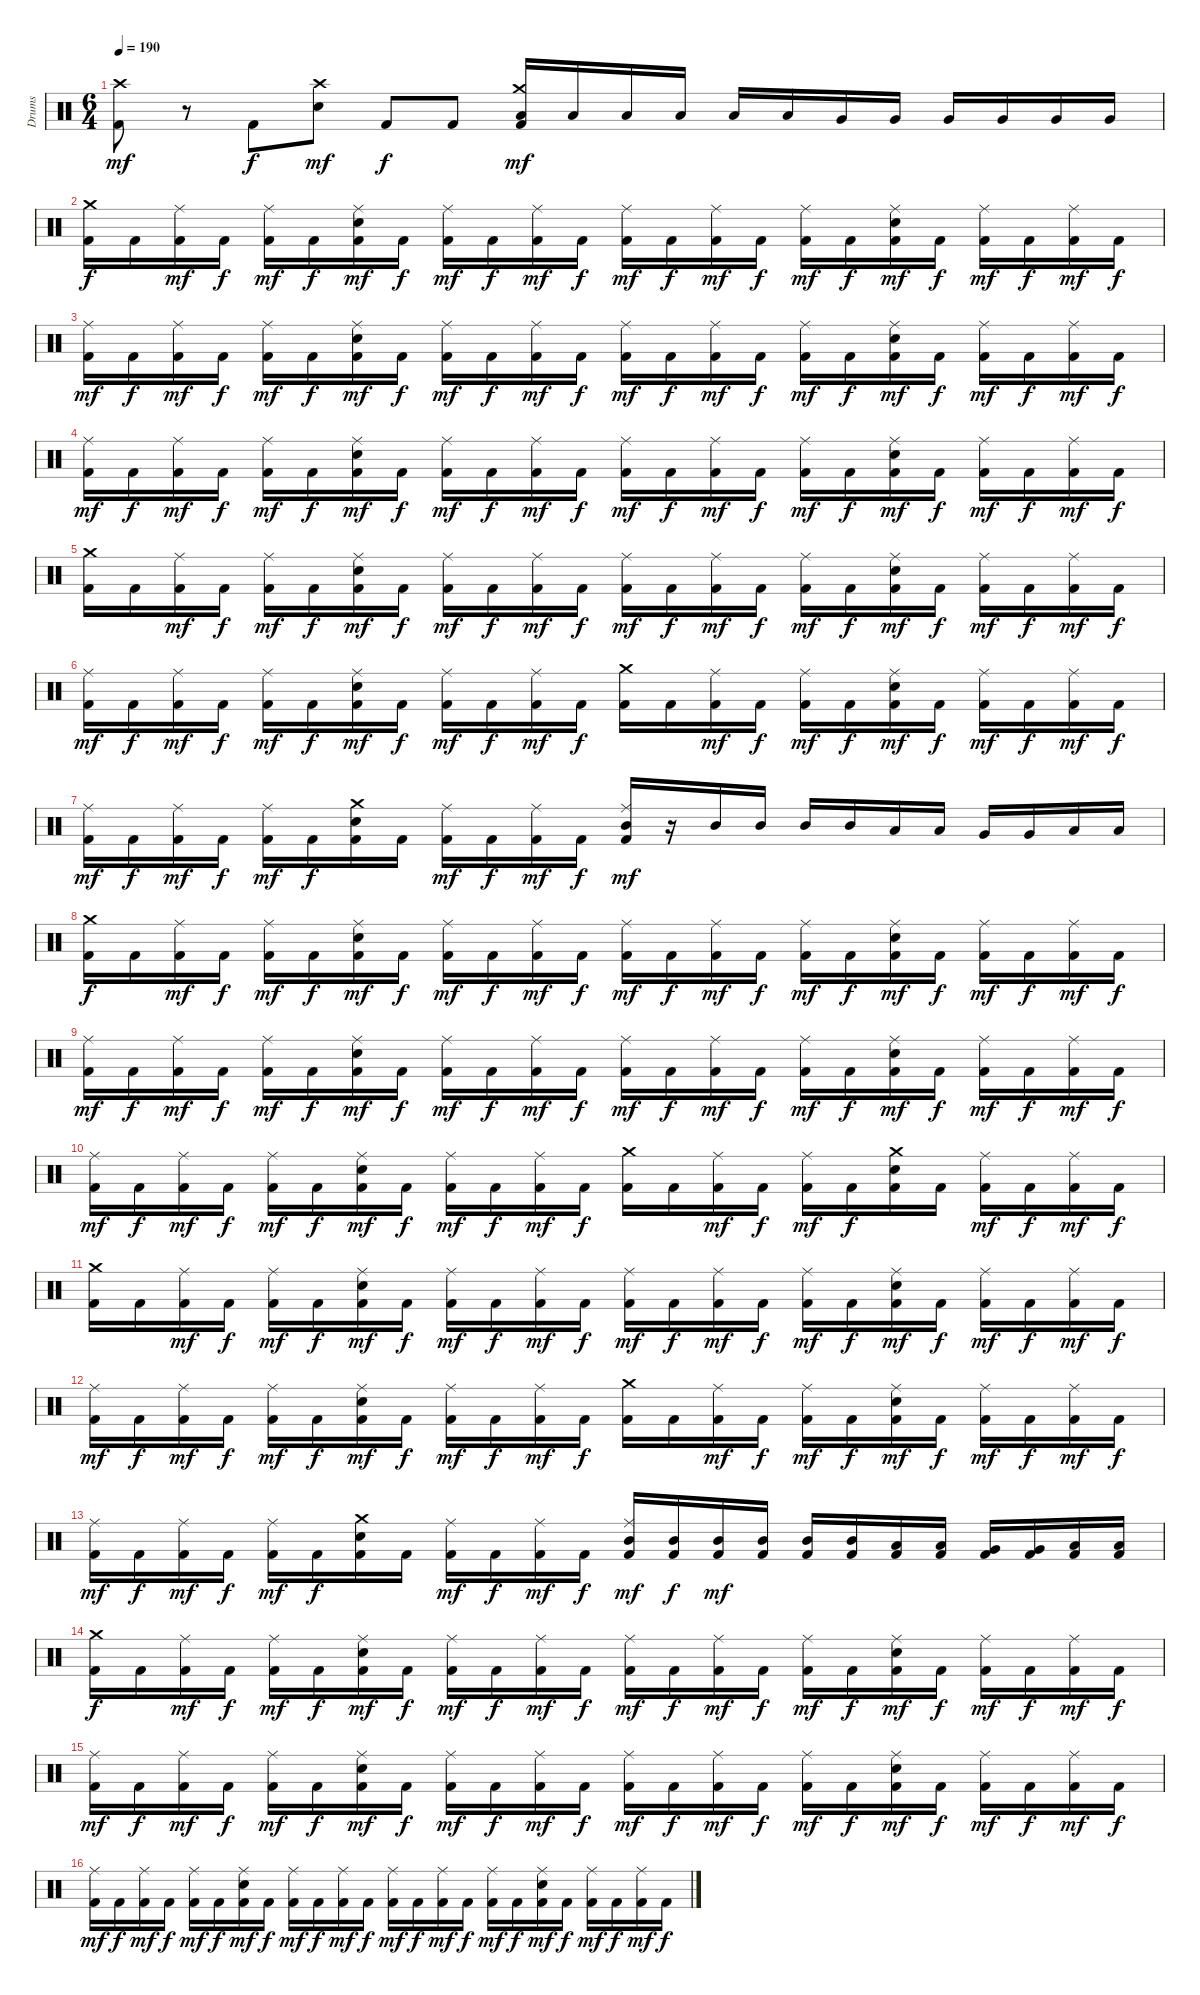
\track ("Drums" "Drums") {instrument percussion}
\staff {score}
\articulation defaults
\ts (6 4)
\tempo 190
\clef neutral
\ks c
("Crash high (hit)" "Kick (hit) 2").8{dy mf} r.8 "Kick (hit) 2".8{dy f} ("Crash high (hit)" "Snare (hit) 2").8{dy mf} "Kick (hit) 2".8{dy f} "Kick (hit) 2".8 ("Crash medium (hit)" "Low Tom (hit)" "Kick (hit) 2").16{dy mf} "Low Tom (hit)".16 "Low Tom (hit)".16 "Low Tom (hit)".16 "Low Tom (hit)".16 "Low Tom (hit)".16 "Very Low Tom (hit)".16 "Very Low Tom (hit)".16 "Very Low Tom (hit)".16 "Very Low Tom (hit)".16 "Very Low Tom (hit)".16 "Very Low Tom (hit)".16 |
("Crash medium (hit)" "Kick (hit) 2").16{dy f} "Kick (hit) 2".16 ("Ride (middle)" "Kick (hit) 2").16{dy mf} "Kick (hit) 2".16{dy f} ("Ride (middle)" "Kick (hit) 2").16{dy mf} "Kick (hit) 2".16{dy f} ("Ride (middle)" "Snare (hit) 2" "Kick (hit) 2").16{dy mf} "Kick (hit) 2".16{dy f} ("Ride (middle)" "Kick (hit) 2").16{dy mf} "Kick (hit) 2".16{dy f} ("Ride (middle)" "Kick (hit) 2").16{dy mf} "Kick (hit) 2".16{dy f} ("Ride (middle)" "Kick (hit) 2").16{dy mf} "Kick (hit) 2".16{dy f} ("Ride (middle)" "Kick (hit) 2").16{dy mf} "Kick (hit) 2".16{dy f} ("Ride (middle)" "Kick (hit) 2").16{dy mf} "Kick (hit) 2".16{dy f} ("Ride (middle)" "Snare (hit) 2" "Kick (hit) 2").16{dy mf} "Kick (hit) 2".16{dy f} ("Ride (middle)" "Kick (hit) 2").16{dy mf} "Kick (hit) 2".16{dy f} ("Ride (middle)" "Kick (hit) 2").16{dy mf} "Kick (hit) 2".16{dy f} |
("Ride (middle)" "Kick (hit) 2").16{dy mf} "Kick (hit) 2".16{dy f} ("Ride (middle)" "Kick (hit) 2").16{dy mf} "Kick (hit) 2".16{dy f} ("Ride (middle)" "Kick (hit) 2").16{dy mf} "Kick (hit) 2".16{dy f} ("Ride (middle)" "Snare (hit) 2" "Kick (hit) 2").16{dy mf} "Kick (hit) 2".16{dy f} ("Ride (middle)" "Kick (hit) 2").16{dy mf} "Kick (hit) 2".16{dy f} ("Ride (middle)" "Kick (hit) 2").16{dy mf} "Kick (hit) 2".16{dy f} ("Ride (middle)" "Kick (hit) 2").16{dy mf} "Kick (hit) 2".16{dy f} ("Ride (middle)" "Kick (hit) 2").16{dy mf} "Kick (hit) 2".16{dy f} ("Ride (middle)" "Kick (hit) 2").16{dy mf} "Kick (hit) 2".16{dy f} ("Ride (middle)" "Snare (hit) 2" "Kick (hit) 2").16{dy mf} "Kick (hit) 2".16{dy f} ("Ride (middle)" "Kick (hit) 2").16{dy mf} "Kick (hit) 2".16{dy f} ("Ride (middle)" "Kick (hit) 2").16{dy mf} "Kick (hit) 2".16{dy f} |
("Ride (middle)" "Kick (hit) 2").16{dy mf} "Kick (hit) 2".16{dy f} ("Ride (middle)" "Kick (hit) 2").16{dy mf} "Kick (hit) 2".16{dy f} ("Ride (middle)" "Kick (hit) 2").16{dy mf} "Kick (hit) 2".16{dy f} ("Ride (middle)" "Snare (hit) 2" "Kick (hit) 2").16{dy mf} "Kick (hit) 2".16{dy f} ("Ride (middle)" "Kick (hit) 2").16{dy mf} "Kick (hit) 2".16{dy f} ("Ride (middle)" "Kick (hit) 2").16{dy mf} "Kick (hit) 2".16{dy f} ("Ride (middle)" "Kick (hit) 2").16{dy mf} "Kick (hit) 2".16{dy f} ("Ride (middle)" "Kick (hit) 2").16{dy mf} "Kick (hit) 2".16{dy f} ("Ride (middle)" "Kick (hit) 2").16{dy mf} "Kick (hit) 2".16{dy f} ("Ride (middle)" "Snare (hit) 2" "Kick (hit) 2").16{dy mf} "Kick (hit) 2".16{dy f} ("Ride (middle)" "Kick (hit) 2").16{dy mf} "Kick (hit) 2".16{dy f} ("Ride (middle)" "Kick (hit) 2").16{dy mf} "Kick (hit) 2".16{dy f} |
("Crash medium (hit)" "Kick (hit) 2").16 "Kick (hit) 2".16 ("Ride (middle)" "Kick (hit) 2").16{dy mf} "Kick (hit) 2".16{dy f} ("Ride (middle)" "Kick (hit) 2").16{dy mf} "Kick (hit) 2".16{dy f} ("Ride (middle)" "Snare (hit) 2" "Kick (hit) 2").16{dy mf} "Kick (hit) 2".16{dy f} ("Ride (middle)" "Kick (hit) 2").16{dy mf} "Kick (hit) 2".16{dy f} ("Ride (middle)" "Kick (hit) 2").16{dy mf} "Kick (hit) 2".16{dy f} ("Ride (middle)" "Kick (hit) 2").16{dy mf} "Kick (hit) 2".16{dy f} ("Ride (middle)" "Kick (hit) 2").16{dy mf} "Kick (hit) 2".16{dy f} ("Ride (middle)" "Kick (hit) 2").16{dy mf} "Kick (hit) 2".16{dy f} ("Ride (middle)" "Snare (hit) 2" "Kick (hit) 2").16{dy mf} "Kick (hit) 2".16{dy f} ("Ride (middle)" "Kick (hit) 2").16{dy mf} "Kick (hit) 2".16{dy f} ("Ride (middle)" "Kick (hit) 2").16{dy mf} "Kick (hit) 2".16{dy f} |
("Ride (middle)" "Kick (hit) 2").16{dy mf} "Kick (hit) 2".16{dy f} ("Ride (middle)" "Kick (hit) 2").16{dy mf} "Kick (hit) 2".16{dy f} ("Ride (middle)" "Kick (hit) 2").16{dy mf} "Kick (hit) 2".16{dy f} ("Ride (middle)" "Snare (hit) 2" "Kick (hit) 2").16{dy mf} "Kick (hit) 2".16{dy f} ("Ride (middle)" "Kick (hit) 2").16{dy mf} "Kick (hit) 2".16{dy f} ("Ride (middle)" "Kick (hit) 2").16{dy mf} "Kick (hit) 2".16{dy f} ("Crash medium (hit)" "Kick (hit) 2").16 "Kick (hit) 2".16 ("Ride (middle)" "Kick (hit) 2").16{dy mf} "Kick (hit) 2".16{dy f} ("Ride (middle)" "Kick (hit) 2").16{dy mf} "Kick (hit) 2".16{dy f} ("Ride (middle)" "Snare (hit) 2" "Kick (hit) 2").16{dy mf} "Kick (hit) 2".16{dy f} ("Ride (middle)" "Kick (hit) 2").16{dy mf} "Kick (hit) 2".16{dy f} ("Ride (middle)" "Kick (hit) 2").16{dy mf} "Kick (hit) 2".16{dy f} |
("Ride (middle)" "Kick (hit) 2").16{dy mf} "Kick (hit) 2".16{dy f} ("Ride (middle)" "Kick (hit) 2").16{dy mf} "Kick (hit) 2".16{dy f} ("Ride (middle)" "Kick (hit) 2").16{dy mf} "Kick (hit) 2".16{dy f} ("Crash medium (hit)" "Snare (hit) 2" "Kick (hit) 2").16 "Kick (hit) 2".16 ("Ride (middle)" "Kick (hit) 2").16{dy mf} "Kick (hit) 2".16{dy f} ("Ride (middle)" "Kick (hit) 2").16{dy mf} "Kick (hit) 2".16{dy f} ("Ride (middle)" "Mid Tom (hit)" "Kick (hit) 2").16{dy mf} r.16 "Mid Tom (hit)".16 "Mid Tom (hit)".16 "Mid Tom (hit)".16 "Mid Tom (hit)".16 "Low Tom (hit)".16 "Low Tom (hit)".16 "Very Low Tom (hit)".16 "Very Low Tom (hit)".16 "Low Floor Tom (hit)".16 "Low Floor Tom (hit)".16 |
("Crash medium (hit)" "Kick (hit) 2").16{dy f} "Kick (hit) 2".16 ("Ride (middle)" "Kick (hit) 2").16{dy mf} "Kick (hit) 2".16{dy f} ("Ride (middle)" "Kick (hit) 2").16{dy mf} "Kick (hit) 2".16{dy f} ("Ride (middle)" "Snare (hit) 2" "Kick (hit) 2").16{dy mf} "Kick (hit) 2".16{dy f} ("Ride (middle)" "Kick (hit) 2").16{dy mf} "Kick (hit) 2".16{dy f} ("Ride (middle)" "Kick (hit) 2").16{dy mf} "Kick (hit) 2".16{dy f} ("Ride (middle)" "Kick (hit) 2").16{dy mf} "Kick (hit) 2".16{dy f} ("Ride (middle)" "Kick (hit) 2").16{dy mf} "Kick (hit) 2".16{dy f} ("Ride (middle)" "Kick (hit) 2").16{dy mf} "Kick (hit) 2".16{dy f} ("Ride (middle)" "Snare (hit) 2" "Kick (hit) 2").16{dy mf} "Kick (hit) 2".16{dy f} ("Ride (middle)" "Kick (hit) 2").16{dy mf} "Kick (hit) 2".16{dy f} ("Ride (middle)" "Kick (hit) 2").16{dy mf} "Kick (hit) 2".16{dy f} |
("Ride (middle)" "Kick (hit) 2").16{dy mf} "Kick (hit) 2".16{dy f} ("Ride (middle)" "Kick (hit) 2").16{dy mf} "Kick (hit) 2".16{dy f} ("Ride (middle)" "Kick (hit) 2").16{dy mf} "Kick (hit) 2".16{dy f} ("Ride (middle)" "Snare (hit) 2" "Kick (hit) 2").16{dy mf} "Kick (hit) 2".16{dy f} ("Ride (middle)" "Kick (hit) 2").16{dy mf} "Kick (hit) 2".16{dy f} ("Ride (middle)" "Kick (hit) 2").16{dy mf} "Kick (hit) 2".16{dy f} ("Ride (middle)" "Kick (hit) 2").16{dy mf} "Kick (hit) 2".16{dy f} ("Ride (middle)" "Kick (hit) 2").16{dy mf} "Kick (hit) 2".16{dy f} ("Ride (middle)" "Kick (hit) 2").16{dy mf} "Kick (hit) 2".16{dy f} ("Ride (middle)" "Snare (hit) 2" "Kick (hit) 2").16{dy mf} "Kick (hit) 2".16{dy f} ("Ride (middle)" "Kick (hit) 2").16{dy mf} "Kick (hit) 2".16{dy f} ("Ride (middle)" "Kick (hit) 2").16{dy mf} "Kick (hit) 2".16{dy f} |
("Ride (middle)" "Kick (hit) 2").16{dy mf} "Kick (hit) 2".16{dy f} ("Ride (middle)" "Kick (hit) 2").16{dy mf} "Kick (hit) 2".16{dy f} ("Ride (middle)" "Kick (hit) 2").16{dy mf} "Kick (hit) 2".16{dy f} ("Ride (middle)" "Snare (hit) 2" "Kick (hit) 2").16{dy mf} "Kick (hit) 2".16{dy f} ("Ride (middle)" "Kick (hit) 2").16{dy mf} "Kick (hit) 2".16{dy f} ("Ride (middle)" "Kick (hit) 2").16{dy mf} "Kick (hit) 2".16{dy f} ("Crash medium (hit)" "Kick (hit) 2").16 "Kick (hit) 2".16 ("Ride (middle)" "Kick (hit) 2").16{dy mf} "Kick (hit) 2".16{dy f} ("Ride (middle)" "Kick (hit) 2").16{dy mf} "Kick (hit) 2".16{dy f} ("Crash medium (hit)" "Snare (hit) 2" "Kick (hit) 2").16 "Kick (hit) 2".16 ("Ride (middle)" "Kick (hit) 2").16{dy mf} "Kick (hit) 2".16{dy f} ("Ride (middle)" "Kick (hit) 2").16{dy mf} "Kick (hit) 2".16{dy f} |
("Crash medium (hit)" "Kick (hit) 2").16 "Kick (hit) 2".16 ("Ride (middle)" "Kick (hit) 2").16{dy mf} "Kick (hit) 2".16{dy f} ("Ride (middle)" "Kick (hit) 2").16{dy mf} "Kick (hit) 2".16{dy f} ("Ride (middle)" "Snare (hit) 2" "Kick (hit) 2").16{dy mf} "Kick (hit) 2".16{dy f} ("Ride (middle)" "Kick (hit) 2").16{dy mf} "Kick (hit) 2".16{dy f} ("Ride (middle)" "Kick (hit) 2").16{dy mf} "Kick (hit) 2".16{dy f} ("Ride (middle)" "Kick (hit) 2").16{dy mf} "Kick (hit) 2".16{dy f} ("Ride (middle)" "Kick (hit) 2").16{dy mf} "Kick (hit) 2".16{dy f} ("Ride (middle)" "Kick (hit) 2").16{dy mf} "Kick (hit) 2".16{dy f} ("Ride (middle)" "Snare (hit) 2" "Kick (hit) 2").16{dy mf} "Kick (hit) 2".16{dy f} ("Ride (middle)" "Kick (hit) 2").16{dy mf} "Kick (hit) 2".16{dy f} ("Ride (middle)" "Kick (hit) 2").16{dy mf} "Kick (hit) 2".16{dy f} |
("Ride (middle)" "Kick (hit) 2").16{dy mf} "Kick (hit) 2".16{dy f} ("Ride (middle)" "Kick (hit) 2").16{dy mf} "Kick (hit) 2".16{dy f} ("Ride (middle)" "Kick (hit) 2").16{dy mf} "Kick (hit) 2".16{dy f} ("Ride (middle)" "Snare (hit) 2" "Kick (hit) 2").16{dy mf} "Kick (hit) 2".16{dy f} ("Ride (middle)" "Kick (hit) 2").16{dy mf} "Kick (hit) 2".16{dy f} ("Ride (middle)" "Kick (hit) 2").16{dy mf} "Kick (hit) 2".16{dy f} ("Crash medium (hit)" "Kick (hit) 2").16 "Kick (hit) 2".16 ("Ride (middle)" "Kick (hit) 2").16{dy mf} "Kick (hit) 2".16{dy f} ("Ride (middle)" "Kick (hit) 2").16{dy mf} "Kick (hit) 2".16{dy f} ("Ride (middle)" "Snare (hit) 2" "Kick (hit) 2").16{dy mf} "Kick (hit) 2".16{dy f} ("Ride (middle)" "Kick (hit) 2").16{dy mf} "Kick (hit) 2".16{dy f} ("Ride (middle)" "Kick (hit) 2").16{dy mf} "Kick (hit) 2".16{dy f} |
("Ride (middle)" "Kick (hit) 2").16{dy mf} "Kick (hit) 2".16{dy f} ("Ride (middle)" "Kick (hit) 2").16{dy mf} "Kick (hit) 2".16{dy f} ("Ride (middle)" "Kick (hit) 2").16{dy mf} "Kick (hit) 2".16{dy f} ("Crash medium (hit)" "Snare (hit) 2" "Kick (hit) 2").16 "Kick (hit) 2".16 ("Ride (middle)" "Kick (hit) 2").16{dy mf} "Kick (hit) 2".16{dy f} ("Ride (middle)" "Kick (hit) 2").16{dy mf} "Kick (hit) 2".16{dy f} ("Ride (middle)" "Mid Tom (hit)" "Kick (hit) 2").16{dy mf} ("Mid Tom (hit)" "Kick (hit) 2").16{dy f} ("Mid Tom (hit)" "Kick (hit) 2").16{dy mf} ("Mid Tom (hit)" "Kick (hit) 2").16 ("Mid Tom (hit)" "Kick (hit) 2").16 ("Mid Tom (hit)" "Kick (hit) 2").16 ("Low Tom (hit)" "Kick (hit) 2").16 ("Low Tom (hit)" "Kick (hit) 2").16 ("Very Low Tom (hit)" "Kick (hit) 2").16 ("Very Low Tom (hit)" "Kick (hit) 2").16 ("Low Floor Tom (hit)" "Kick (hit) 2").16 ("Low Floor Tom (hit)" "Kick (hit) 2").16 |
("Crash medium (hit)" "Kick (hit) 2").16{dy f} "Kick (hit) 2".16 ("Ride (middle)" "Kick (hit) 2").16{dy mf} "Kick (hit) 2".16{dy f} ("Ride (middle)" "Kick (hit) 2").16{dy mf} "Kick (hit) 2".16{dy f} ("Ride (middle)" "Snare (hit) 2" "Kick (hit) 2").16{dy mf} "Kick (hit) 2".16{dy f} ("Ride (middle)" "Kick (hit) 2").16{dy mf} "Kick (hit) 2".16{dy f} ("Ride (middle)" "Kick (hit) 2").16{dy mf} "Kick (hit) 2".16{dy f} ("Ride (middle)" "Kick (hit) 2").16{dy mf} "Kick (hit) 2".16{dy f} ("Ride (middle)" "Kick (hit) 2").16{dy mf} "Kick (hit) 2".16{dy f} ("Ride (middle)" "Kick (hit) 2").16{dy mf} "Kick (hit) 2".16{dy f} ("Ride (middle)" "Snare (hit) 2" "Kick (hit) 2").16{dy mf} "Kick (hit) 2".16{dy f} ("Ride (middle)" "Kick (hit) 2").16{dy mf} "Kick (hit) 2".16{dy f} ("Ride (middle)" "Kick (hit) 2").16{dy mf} "Kick (hit) 2".16{dy f} |
("Ride (middle)" "Kick (hit) 2").16{dy mf} "Kick (hit) 2".16{dy f} ("Ride (middle)" "Kick (hit) 2").16{dy mf} "Kick (hit) 2".16{dy f} ("Ride (middle)" "Kick (hit) 2").16{dy mf} "Kick (hit) 2".16{dy f} ("Ride (middle)" "Snare (hit) 2" "Kick (hit) 2").16{dy mf} "Kick (hit) 2".16{dy f} ("Ride (middle)" "Kick (hit) 2").16{dy mf} "Kick (hit) 2".16{dy f} ("Ride (middle)" "Kick (hit) 2").16{dy mf} "Kick (hit) 2".16{dy f} ("Ride (middle)" "Kick (hit) 2").16{dy mf} "Kick (hit) 2".16{dy f} ("Ride (middle)" "Kick (hit) 2").16{dy mf} "Kick (hit) 2".16{dy f} ("Ride (middle)" "Kick (hit) 2").16{dy mf} "Kick (hit) 2".16{dy f} ("Ride (middle)" "Snare (hit) 2" "Kick (hit) 2").16{dy mf} "Kick (hit) 2".16{dy f} ("Ride (middle)" "Kick (hit) 2").16{dy mf} "Kick (hit) 2".16{dy f} ("Ride (middle)" "Kick (hit) 2").16{dy mf} "Kick (hit) 2".16{dy f} |
("Ride (middle)" "Kick (hit) 2").16{dy mf} "Kick (hit) 2".16{dy f} ("Ride (middle)" "Kick (hit) 2").16{dy mf} "Kick (hit) 2".16{dy f} ("Ride (middle)" "Kick (hit) 2").16{dy mf} "Kick (hit) 2".16{dy f} ("Ride (middle)" "Snare (hit) 2" "Kick (hit) 2").16{dy mf} "Kick (hit) 2".16{dy f} ("Ride (middle)" "Kick (hit) 2").16{dy mf} "Kick (hit) 2".16{dy f} ("Ride (middle)" "Kick (hit) 2").16{dy mf} "Kick (hit) 2".16{dy f} ("Ride (middle)" "Kick (hit) 2").16{dy mf} "Kick (hit) 2".16{dy f} ("Ride (middle)" "Kick (hit) 2").16{dy mf} "Kick (hit) 2".16{dy f} ("Ride (middle)" "Kick (hit) 2").16{dy mf} "Kick (hit) 2".16{dy f} ("Ride (middle)" "Snare (hit) 2" "Kick (hit) 2").16{dy mf} "Kick (hit) 2".16{dy f} ("Ride (middle)" "Kick (hit) 2").16{dy mf} "Kick (hit) 2".16{dy f} ("Ride (middle)" "Kick (hit) 2").16{dy mf} "Kick (hit) 2".16{dy f}
